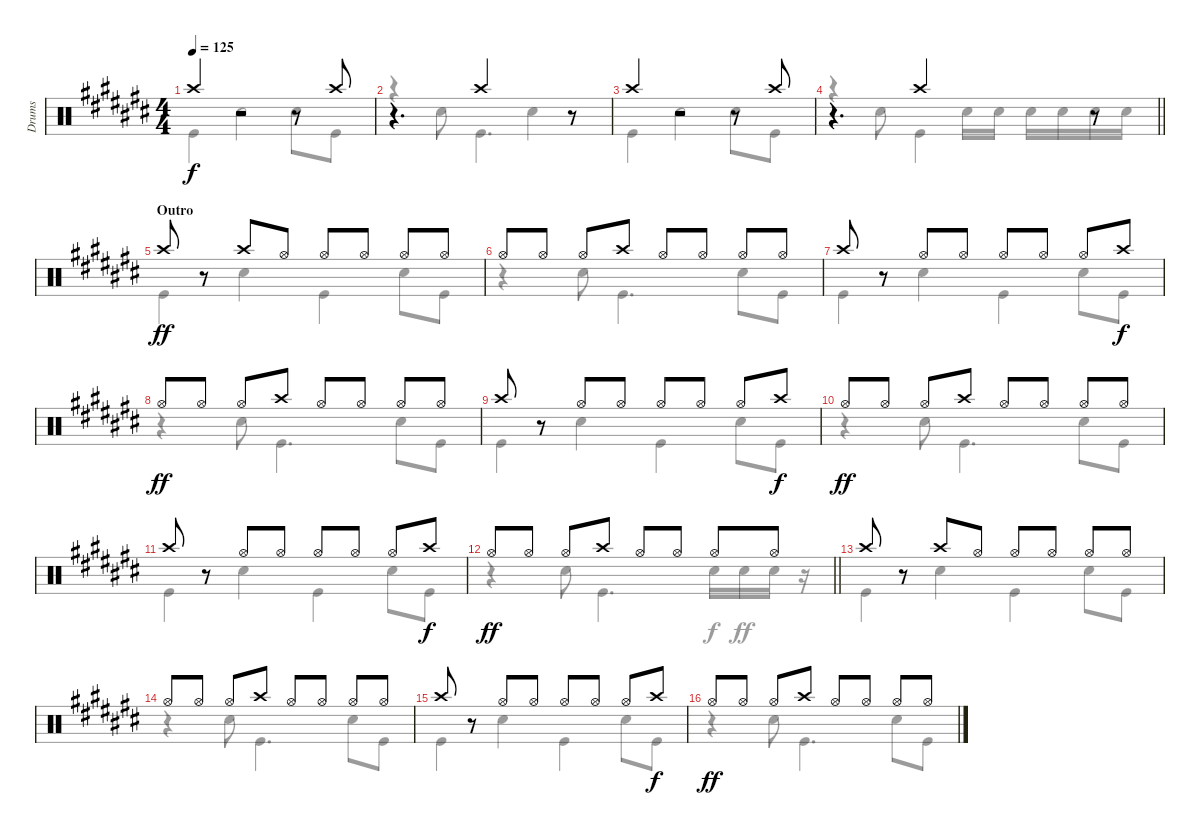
\track ("Drums" "Drums") {instrument percussion}
\staff {score}
\articulation defaults
\voice
\ts (4 4)
\tempo 125
\clef neutral
\ks c# "Crash high (hit)".4{dy f}
r.2 r.8 "Crash high (hit)".8 |
r.4{d} "Crash high (hit)".2 r.8 |
"Crash high (hit)".4 r.2 r.8 "Crash high (hit)".8 |
\barLineRight lightlight
r.4{d} "Crash high (hit)".2 r.8 |
\section ("" "Outro")
"Crash high (hit)".8{dy ff} r.8 "Crash high (hit)".8 "Hi-Hat (open)".8 "Hi-Hat (open)".8 "Hi-Hat (open)".8 "Hi-Hat (open)".8 "Hi-Hat (open)".8 |
"Hi-Hat (open)".8 "Hi-Hat (open)".8 "Hi-Hat (open)".8 "Crash high (hit)".8 "Hi-Hat (open)".8 "Hi-Hat (open)".8 "Hi-Hat (open)".8 "Hi-Hat (open)".8 |
"Crash high (hit)".8 r.8 "Hi-Hat (open)".8 "Hi-Hat (open)".8 "Hi-Hat (open)".8 "Hi-Hat (open)".8 "Hi-Hat (open)".8 "Crash high (hit)".8{dy f} |
"Hi-Hat (open)".8{dy ff} "Hi-Hat (open)".8 "Hi-Hat (open)".8 "Crash high (hit)".8 "Hi-Hat (open)".8 "Hi-Hat (open)".8 "Hi-Hat (open)".8 "Hi-Hat (open)".8 |
"Crash high (hit)".8 r.8 "Hi-Hat (open)".8 "Hi-Hat (open)".8 "Hi-Hat (open)".8 "Hi-Hat (open)".8 "Hi-Hat (open)".8 "Crash high (hit)".8{dy f} |
"Hi-Hat (open)".8{dy ff} "Hi-Hat (open)".8 "Hi-Hat (open)".8 "Crash high (hit)".8 "Hi-Hat (open)".8 "Hi-Hat (open)".8 "Hi-Hat (open)".8 "Hi-Hat (open)".8 |
"Crash high (hit)".8 r.8 "Hi-Hat (open)".8 "Hi-Hat (open)".8 "Hi-Hat (open)".8 "Hi-Hat (open)".8 "Hi-Hat (open)".8 "Crash high (hit)".8{dy f} |
\barLineRight lightlight "Hi-Hat (open)".8{dy ff} "Hi-Hat (open)".8 "Hi-Hat (open)".8 "Crash high (hit)".8 "Hi-Hat (open)".8 "Hi-Hat (open)".8 "Hi-Hat (open)".8 "Hi-Hat (open)".8
|
"Crash high (hit)".8 r.8 "Crash high (hit)".8 "Hi-Hat (open)".8 "Hi-Hat (open)".8 "Hi-Hat (open)".8 "Hi-Hat (open)".8 "Hi-Hat (open)".8 |
"Hi-Hat (open)".8 "Hi-Hat (open)".8 "Hi-Hat (open)".8 "Crash high (hit)".8 "Hi-Hat (open)".8 "Hi-Hat (open)".8 "Hi-Hat (open)".8 "Hi-Hat (open)".8 |
"Crash high (hit)".8 r.8 "Hi-Hat (open)".8 "Hi-Hat (open)".8 "Hi-Hat (open)".8 "Hi-Hat (open)".8 "Hi-Hat (open)".8 "Crash high (hit)".8{dy f} |
"Hi-Hat (open)".8{dy ff} "Hi-Hat (open)".8 "Hi-Hat (open)".8 "Crash high (hit)".8 "Hi-Hat (open)".8 "Hi-Hat (open)".8 "Hi-Hat (open)".8 "Hi-Hat (open)".8
\voice
\clef neutral
\ottava regular
\simile none
\ks c# "Kick (hit)".4{dy f} "Snare (hit) 2".2 "Snare (hit) 2".8 "Kick (hit)".8
|
r.4 "Snare (hit) 2".8 "Kick (hit)".4{d} "Snare (hit) 2".4 |
"Kick (hit)".4 "Snare (hit) 2".2 "Snare (hit) 2".8 "Kick (hit)".8 |
\barLineRight lightlight
r.4 "Snare (hit) 2".8 "Kick (hit)".4 "Snare (hit) 2".16 "Snare (hit) 2".16 "Snare (hit) 2".16 "Snare (hit) 2".16 "Snare (hit) 2".16 "Snare (hit) 2".16 |
"Kick (hit)".4{dy ff} "Snare (hit) 2".4 "Kick (hit)".4 "Snare (hit) 2".8 "Kick (hit)".8 |
r.4 "Snare (hit) 2".8 "Kick (hit)".4{d} "Snare (hit) 2".8 "Kick (hit)".8 |
"Kick (hit)".4 "Snare (hit) 2".4 "Kick (hit)".4 "Snare (hit) 2".8 "Kick (hit)".8 |
r.4 "Snare (hit) 2".8 "Kick (hit)".4{d} "Snare (hit) 2".8 "Kick (hit)".8 |
"Kick (hit)".4 "Snare (hit) 2".4 "Kick (hit)".4 "Snare (hit) 2".8 "Kick (hit)".8 |
r.4 "Snare (hit) 2".8 "Kick (hit)".4{d} "Snare (hit) 2".8 "Kick (hit)".8 |
"Kick (hit)".4 "Snare (hit) 2".4 "Kick (hit)".4 "Snare (hit) 2".8 "Kick (hit)".8 |
\barLineRight lightlight
r.4 "Snare (hit) 2".8 "Kick (hit)".4{d} "Snare (hit) 2".16{dy f} "Snare (hit) 2".16{dy ff} "Snare (hit) 2".16 r.16 |
"Kick (hit)".4 "Snare (hit) 2".4 "Kick (hit)".4 "Snare (hit) 2".8 "Kick (hit)".8 |
r.4 "Snare (hit) 2".8 "Kick (hit)".4{d} "Snare (hit) 2".8 "Kick (hit)".8 |
"Kick (hit)".4 "Snare (hit) 2".4 "Kick (hit)".4 "Snare (hit) 2".8 "Kick (hit)".8 |
r.4 "Snare (hit) 2".8 "Kick (hit)".4{d} "Snare (hit) 2".8 "Kick (hit)".8
